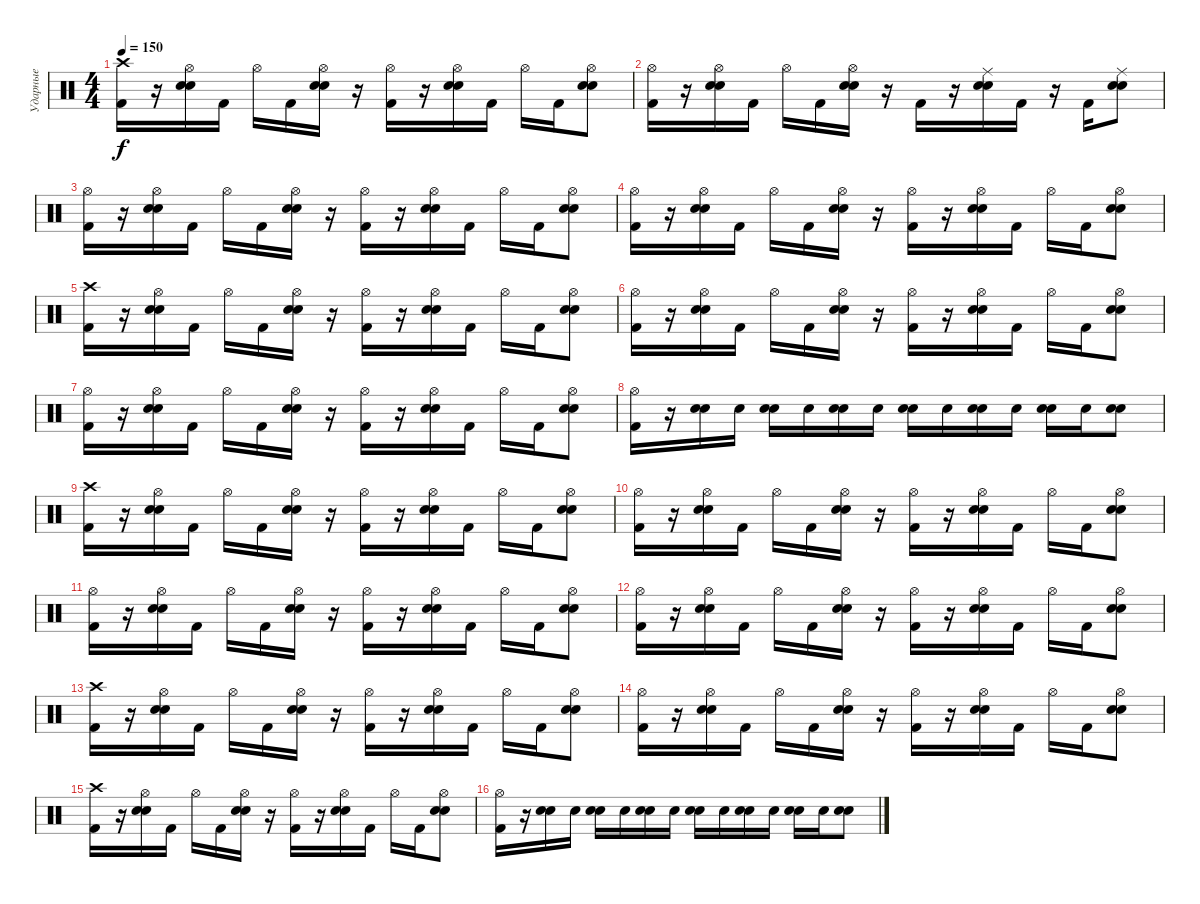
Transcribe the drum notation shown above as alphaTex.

\track ("Ударные" "Ударные") {instrument percussion}
\staff {score}
\articulation defaults
\ts (4 4)
\tempo 150
\clef neutral
\ks c
("Crash high (hit)" "Kick (hit) 2").16{dy f} r.16 ("Hi-Hat (open)" "Electric Snare (hit)" "Snare (hit) 2").16 "Kick (hit) 2".16 "Hi-Hat (open)".16 "Kick (hit) 2".16 ("Hi-Hat (open)" "Electric Snare (hit)" "Snare (hit) 2").16 r.16 ("Hi-Hat (open)" "Kick (hit) 2").16 r.16 ("Hi-Hat (open)" "Electric Snare (hit)" "Snare (hit) 2").16 "Kick (hit) 2".16 "Hi-Hat (open)".16 "Kick (hit) 2".16 ("Hi-Hat (open)" "Electric Snare (hit)" "Snare (hit) 2").8 |
("Hi-Hat (open)" "Kick (hit) 2").16 r.16 ("Hi-Hat (open)" "Electric Snare (hit)" "Snare (hit) 2").16 "Kick (hit) 2".16 "Hi-Hat (open)".16 "Kick (hit) 2".16 ("Hi-Hat (open)" "Electric Snare (hit)" "Snare (hit) 2").16 r.16 "Kick (hit) 2".16 r.16 ("Ride (middle)" "Electric Snare (hit)" "Snare (hit) 2").16 "Kick (hit) 2".16 r.16 "Kick (hit) 2".16 ("Ride (middle)" "Electric Snare (hit)" "Snare (hit) 2").8 |
("Hi-Hat (open)" "Kick (hit) 2").16 r.16 ("Hi-Hat (open)" "Electric Snare (hit)" "Snare (hit) 2").16 "Kick (hit) 2".16 "Hi-Hat (open)".16 "Kick (hit) 2".16 ("Hi-Hat (open)" "Electric Snare (hit)" "Snare (hit) 2").16 r.16 ("Hi-Hat (open)" "Kick (hit) 2").16 r.16 ("Hi-Hat (open)" "Electric Snare (hit)" "Snare (hit) 2").16 "Kick (hit) 2".16 "Hi-Hat (open)".16 "Kick (hit) 2".16 ("Hi-Hat (open)" "Electric Snare (hit)" "Snare (hit) 2").8 |
("Hi-Hat (open)" "Kick (hit) 2").16 r.16 ("Hi-Hat (open)" "Electric Snare (hit)" "Snare (hit) 2").16 "Kick (hit) 2".16 "Hi-Hat (open)".16 "Kick (hit) 2".16 ("Hi-Hat (open)" "Electric Snare (hit)" "Snare (hit) 2").16 r.16 ("Hi-Hat (open)" "Kick (hit) 2").16 r.16 ("Hi-Hat (open)" "Electric Snare (hit)" "Snare (hit) 2").16 "Kick (hit) 2".16 "Hi-Hat (open)".16 "Kick (hit) 2".16 ("Hi-Hat (open)" "Electric Snare (hit)" "Snare (hit) 2").8 |
("Crash high (hit)" "Kick (hit) 2").16 r.16 ("Hi-Hat (open)" "Electric Snare (hit)" "Snare (hit) 2").16 "Kick (hit) 2".16 "Hi-Hat (open)".16 "Kick (hit) 2".16 ("Hi-Hat (open)" "Electric Snare (hit)" "Snare (hit) 2").16 r.16 ("Hi-Hat (open)" "Kick (hit) 2").16 r.16 ("Hi-Hat (open)" "Electric Snare (hit)" "Snare (hit) 2").16 "Kick (hit) 2".16 "Hi-Hat (open)".16 "Kick (hit) 2".16 ("Hi-Hat (open)" "Electric Snare (hit)" "Snare (hit) 2").8 |
("Hi-Hat (open)" "Kick (hit) 2").16 r.16 ("Hi-Hat (open)" "Electric Snare (hit)" "Snare (hit) 2").16 "Kick (hit) 2".16 "Hi-Hat (open)".16 "Kick (hit) 2".16 ("Hi-Hat (open)" "Electric Snare (hit)" "Snare (hit) 2").16 r.16 ("Hi-Hat (open)" "Kick (hit) 2").16 r.16 ("Hi-Hat (open)" "Electric Snare (hit)" "Snare (hit) 2").16 "Kick (hit) 2".16 "Hi-Hat (open)".16 "Kick (hit) 2".16 ("Hi-Hat (open)" "Electric Snare (hit)" "Snare (hit) 2").8 |
("Hi-Hat (open)" "Kick (hit) 2").16 r.16 ("Hi-Hat (open)" "Electric Snare (hit)" "Snare (hit) 2").16 "Kick (hit) 2".16 "Hi-Hat (open)".16 "Kick (hit) 2".16 ("Hi-Hat (open)" "Electric Snare (hit)" "Snare (hit) 2").16 r.16 ("Hi-Hat (open)" "Kick (hit) 2").16 r.16 ("Hi-Hat (open)" "Electric Snare (hit)" "Snare (hit) 2").16 "Kick (hit) 2".16 "Hi-Hat (open)".16 "Kick (hit) 2".16 ("Hi-Hat (open)" "Electric Snare (hit)" "Snare (hit) 2").8 |
("Hi-Hat (open)" "Kick (hit) 2").16 r.16 ("Electric Snare (hit)" "Snare (hit) 2").16 "Electric Snare (hit)".16 ("Electric Snare (hit)" "Snare (hit) 2").16 "Electric Snare (hit)".16 ("Electric Snare (hit)" "Snare (hit) 2").16 "Electric Snare (hit)".16 ("Electric Snare (hit)" "Snare (hit) 2").16 "Electric Snare (hit)".16 ("Electric Snare (hit)" "Snare (hit) 2").16 "Electric Snare (hit)".16 ("Electric Snare (hit)" "Snare (hit) 2").16 "Electric Snare (hit)".16 ("Electric Snare (hit)" "Snare (hit) 2").8 |
("Crash high (hit)" "Kick (hit) 2").16 r.16 ("Hi-Hat (open)" "Electric Snare (hit)" "Snare (hit) 2").16 "Kick (hit) 2".16 "Hi-Hat (open)".16 "Kick (hit) 2".16 ("Hi-Hat (open)" "Electric Snare (hit)" "Snare (hit) 2").16 r.16 ("Hi-Hat (open)" "Kick (hit) 2").16 r.16 ("Hi-Hat (open)" "Electric Snare (hit)" "Snare (hit) 2").16 "Kick (hit) 2".16 "Hi-Hat (open)".16 "Kick (hit) 2".16 ("Hi-Hat (open)" "Electric Snare (hit)" "Snare (hit) 2").8 |
("Hi-Hat (open)" "Kick (hit) 2").16 r.16 ("Hi-Hat (open)" "Electric Snare (hit)" "Snare (hit) 2").16 "Kick (hit) 2".16 "Hi-Hat (open)".16 "Kick (hit) 2".16 ("Hi-Hat (open)" "Electric Snare (hit)" "Snare (hit) 2").16 r.16 ("Hi-Hat (open)" "Kick (hit) 2").16 r.16 ("Hi-Hat (open)" "Electric Snare (hit)" "Snare (hit) 2").16 "Kick (hit) 2".16 "Hi-Hat (open)".16 "Kick (hit) 2".16 ("Hi-Hat (open)" "Electric Snare (hit)" "Snare (hit) 2").8 |
("Hi-Hat (open)" "Kick (hit) 2").16 r.16 ("Hi-Hat (open)" "Electric Snare (hit)" "Snare (hit) 2").16 "Kick (hit) 2".16 "Hi-Hat (open)".16 "Kick (hit) 2".16 ("Hi-Hat (open)" "Electric Snare (hit)" "Snare (hit) 2").16 r.16 ("Hi-Hat (open)" "Kick (hit) 2").16 r.16 ("Hi-Hat (open)" "Electric Snare (hit)" "Snare (hit) 2").16 "Kick (hit) 2".16 "Hi-Hat (open)".16 "Kick (hit) 2".16 ("Hi-Hat (open)" "Electric Snare (hit)" "Snare (hit) 2").8 |
("Hi-Hat (open)" "Kick (hit) 2").16 r.16 ("Hi-Hat (open)" "Electric Snare (hit)" "Snare (hit) 2").16 "Kick (hit) 2".16 "Hi-Hat (open)".16 "Kick (hit) 2".16 ("Hi-Hat (open)" "Electric Snare (hit)" "Snare (hit) 2").16 r.16 ("Hi-Hat (open)" "Kick (hit) 2").16 r.16 ("Hi-Hat (open)" "Electric Snare (hit)" "Snare (hit) 2").16 "Kick (hit) 2".16 "Hi-Hat (open)".16 "Kick (hit) 2".16 ("Hi-Hat (open)" "Electric Snare (hit)" "Snare (hit) 2").8 |
("Crash high (hit)" "Kick (hit) 2").16 r.16 ("Hi-Hat (open)" "Electric Snare (hit)" "Snare (hit) 2").16 "Kick (hit) 2".16 "Hi-Hat (open)".16 "Kick (hit) 2".16 ("Hi-Hat (open)" "Electric Snare (hit)" "Snare (hit) 2").16 r.16 ("Hi-Hat (open)" "Kick (hit) 2").16 r.16 ("Hi-Hat (open)" "Electric Snare (hit)" "Snare (hit) 2").16 "Kick (hit) 2".16 "Hi-Hat (open)".16 "Kick (hit) 2".16 ("Hi-Hat (open)" "Electric Snare (hit)" "Snare (hit) 2").8 |
("Hi-Hat (open)" "Kick (hit) 2").16 r.16 ("Hi-Hat (open)" "Electric Snare (hit)" "Snare (hit) 2").16 "Kick (hit) 2".16 "Hi-Hat (open)".16 "Kick (hit) 2".16 ("Hi-Hat (open)" "Electric Snare (hit)" "Snare (hit) 2").16 r.16 ("Hi-Hat (open)" "Kick (hit) 2").16 r.16 ("Hi-Hat (open)" "Electric Snare (hit)" "Snare (hit) 2").16 "Kick (hit) 2".16 "Hi-Hat (open)".16 "Kick (hit) 2".16 ("Hi-Hat (open)" "Electric Snare (hit)" "Snare (hit) 2").8 |
("Crash high (hit)" "Kick (hit) 2").16 r.16 ("Hi-Hat (open)" "Electric Snare (hit)" "Snare (hit) 2").16 "Kick (hit) 2".16 "Hi-Hat (open)".16 "Kick (hit) 2".16 ("Hi-Hat (open)" "Electric Snare (hit)" "Snare (hit) 2").16 r.16 ("Hi-Hat (open)" "Kick (hit) 2").16 r.16 ("Hi-Hat (open)" "Electric Snare (hit)" "Snare (hit) 2").16 "Kick (hit) 2".16 "Hi-Hat (open)".16 "Kick (hit) 2".16 ("Hi-Hat (open)" "Electric Snare (hit)" "Snare (hit) 2").8 |
("Hi-Hat (open)" "Kick (hit) 2").16 r.16 ("Electric Snare (hit)" "Snare (hit) 2").16 "Electric Snare (hit)".16 ("Electric Snare (hit)" "Snare (hit) 2").16 "Electric Snare (hit)".16 ("Electric Snare (hit)" "Snare (hit) 2").16 "Electric Snare (hit)".16 ("Electric Snare (hit)" "Snare (hit) 2").16 "Electric Snare (hit)".16 ("Electric Snare (hit)" "Snare (hit) 2").16 "Electric Snare (hit)".16 ("Electric Snare (hit)" "Snare (hit) 2").16 "Electric Snare (hit)".16 ("Electric Snare (hit)" "Snare (hit) 2").8
